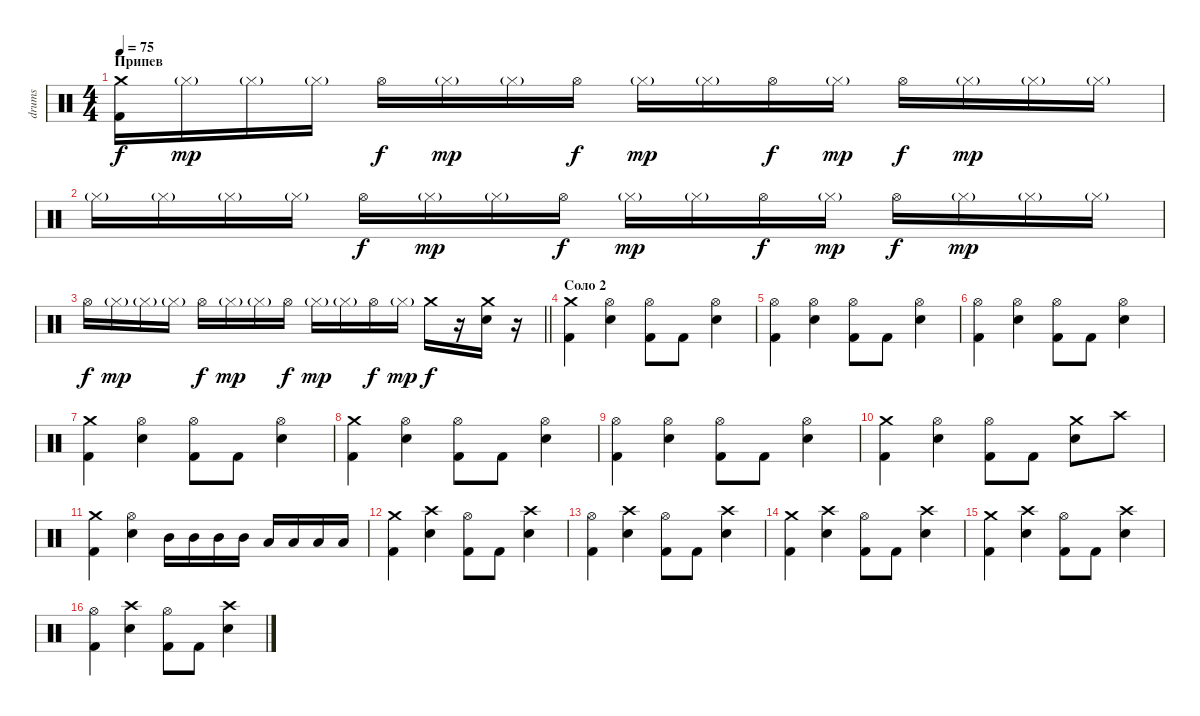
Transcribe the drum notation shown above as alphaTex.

\track ("drums" "drums") {instrument percussion}
\staff {score}
\articulation defaults
\ts (4 4)
\section ("" "Припев")
\tempo 75
\clef neutral
\ks c
("Crash medium (hit)" "Kick (hit) 2").16{dy f} "Hi-Hat (closed)"{g}.16{dy mp} "Hi-Hat (closed)"{g}.16 "Hi-Hat (closed)"{g}.16 "Hi-Hat (open)".16{dy f} "Hi-Hat (closed)"{g}.16{dy mp} "Hi-Hat (closed)"{g}.16 "Hi-Hat (open)".16{dy f} "Hi-Hat (closed)"{g}.16{dy mp} "Hi-Hat (closed)"{g}.16 "Hi-Hat (open)".16{dy f} "Hi-Hat (closed)"{g}.16{dy mp} "Hi-Hat (open)".16{dy f} "Hi-Hat (closed)"{g}.16{dy mp} "Hi-Hat (closed)"{g}.16 "Hi-Hat (closed)"{g}.16 |
"Hi-Hat (closed)"{g}.16 "Hi-Hat (closed)"{g}.16 "Hi-Hat (closed)"{g}.16 "Hi-Hat (closed)"{g}.16 "Hi-Hat (open)".16{dy f} "Hi-Hat (closed)"{g}.16{dy mp} "Hi-Hat (closed)"{g}.16 "Hi-Hat (open)".16{dy f} "Hi-Hat (closed)"{g}.16{dy mp} "Hi-Hat (closed)"{g}.16 "Hi-Hat (open)".16{dy f} "Hi-Hat (closed)"{g}.16{dy mp} "Hi-Hat (open)".16{dy f} "Hi-Hat (closed)"{g}.16{dy mp} "Hi-Hat (closed)"{g}.16 "Hi-Hat (closed)"{g}.16 |
\barLineRight lightlight "Hi-Hat (open)".16{dy f} "Hi-Hat (closed)"{g}.16{dy mp} "Hi-Hat (closed)"{g}.16 "Hi-Hat (closed)"{g}.16 "Hi-Hat (open)".16{dy f} "Hi-Hat (closed)"{g}.16{dy mp} "Hi-Hat (closed)"{g}.16 "Hi-Hat (open)".16{dy f} "Hi-Hat (closed)"{g}.16{dy mp} "Hi-Hat (closed)"{g}.16 "Hi-Hat (open)".16{dy f} "Hi-Hat (closed)"{g}.16{dy mp} "Crash medium (hit)".16{dy f}
r.16 ("Crash medium (hit)" "Snare (hit) 2").16 r.16 |
\section ("" "Соло 2")
("Crash medium (hit)" "Kick (hit) 2").4 ("Hi-Hat (open)" "Snare (hit) 2").4 ("Hi-Hat (open)" "Kick (hit) 2").8 "Kick (hit) 2".8 ("Hi-Hat (open)" "Snare (hit) 2").4 |
("Hi-Hat (open)" "Kick (hit) 2").4 ("Hi-Hat (open)" "Snare (hit) 2").4 ("Hi-Hat (open)" "Kick (hit) 2").8 "Kick (hit) 2".8 ("Hi-Hat (open)" "Snare (hit) 2").4 |
("Hi-Hat (open)" "Kick (hit) 2").4 ("Hi-Hat (open)" "Snare (hit) 2").4 ("Hi-Hat (open)" "Kick (hit) 2").8 "Kick (hit) 2".8 ("Hi-Hat (open)" "Snare (hit) 2").4 |
("Crash medium (hit)" "Kick (hit) 2").4 ("Hi-Hat (open)" "Snare (hit) 2").4 ("Hi-Hat (open)" "Kick (hit) 2").8 "Kick (hit) 2".8 ("Hi-Hat (open)" "Snare (hit) 2").4 |
("Crash medium (hit)" "Kick (hit) 2").4 ("Hi-Hat (open)" "Snare (hit) 2").4 ("Hi-Hat (open)" "Kick (hit) 2").8 "Kick (hit) 2".8 ("Hi-Hat (open)" "Snare (hit) 2").4 |
("Hi-Hat (open)" "Kick (hit) 2").4 ("Hi-Hat (open)" "Snare (hit) 2").4 ("Hi-Hat (open)" "Kick (hit) 2").8 "Kick (hit) 2".8 ("Hi-Hat (open)" "Snare (hit) 2").4 |
("Crash medium (hit)" "Kick (hit) 2").4 ("Hi-Hat (open)" "Snare (hit) 2").4 ("Hi-Hat (open)" "Kick (hit) 2").8 "Kick (hit) 2".8 ("Crash medium (hit)" "Snare (hit) 2").8 "Crash high (hit)".8 |
("Crash medium (hit)" "Kick (hit) 2").4 ("Hi-Hat (open)" "Snare (hit) 2").4 "Mid Tom (hit)".16 "Mid Tom (hit)".16 "Mid Tom (hit)".16 "Mid Tom (hit)".16 "Low Tom (hit)".16 "Low Tom (hit)".16 "Low Tom (hit)".16 "Low Tom (hit)".16 |
("Crash medium (hit)" "Kick (hit) 2").4 ("Crash high (hit)" "Snare (hit) 2").4 ("Hi-Hat (open)" "Kick (hit) 2").8 "Kick (hit) 2".8 ("Crash high (hit)" "Snare (hit) 2").4 |
("Hi-Hat (open)" "Kick (hit) 2").4 ("Crash high (hit)" "Snare (hit) 2").4 ("Hi-Hat (open)" "Kick (hit) 2").8 "Kick (hit) 2".8 ("Crash high (hit)" "Snare (hit) 2").4 |
("Crash medium (hit)" "Kick (hit) 2").4 ("Crash high (hit)" "Snare (hit) 2").4 ("Hi-Hat (open)" "Kick (hit) 2").8 "Kick (hit) 2".8 ("Crash high (hit)" "Snare (hit) 2").4 |
("Crash medium (hit)" "Kick (hit) 2").4 ("Crash high (hit)" "Snare (hit) 2").4 ("Hi-Hat (open)" "Kick (hit) 2").8 "Kick (hit) 2".8 ("Crash high (hit)" "Snare (hit) 2").4 |
("Hi-Hat (open)" "Kick (hit) 2").4 ("Crash high (hit)" "Snare (hit) 2").4 ("Hi-Hat (open)" "Kick (hit) 2").8 "Kick (hit) 2".8 ("Crash high (hit)" "Snare (hit) 2").4
